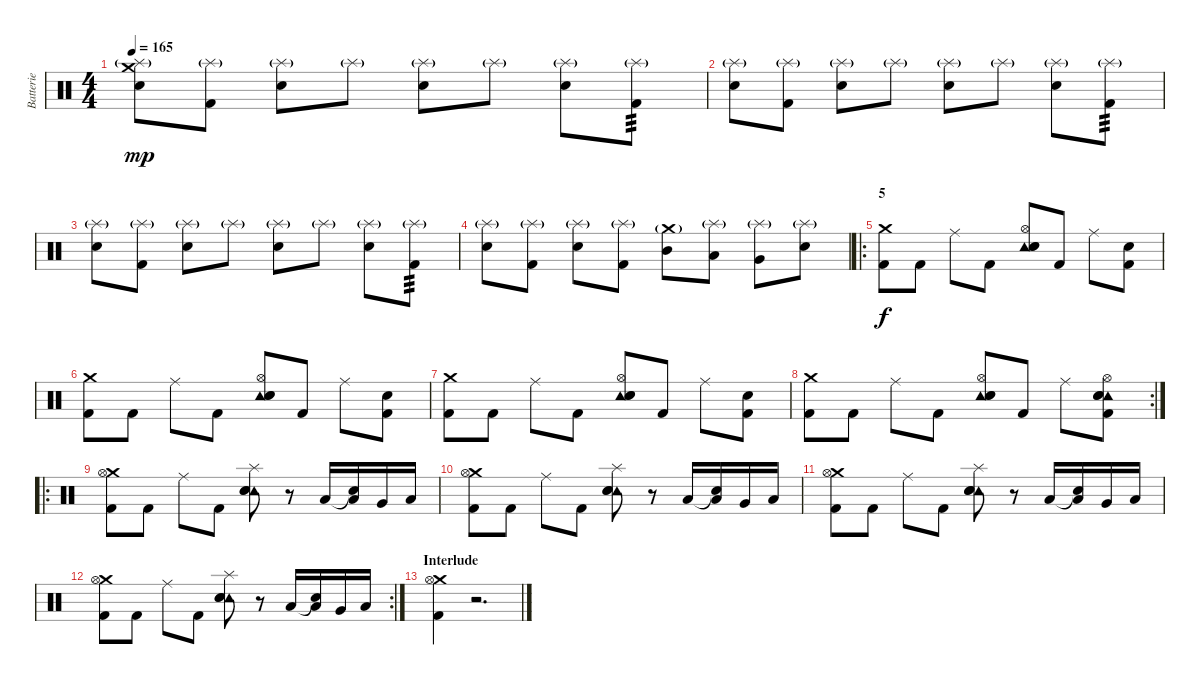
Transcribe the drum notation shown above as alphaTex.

\track ("Batterie" "Batterie") {instrument percussion}
\staff {score}
\articulation defaults
\ts (4 4)
\tempo 165
\clef neutral
\ks c
("Splash (hit)"{g} "Electric Snare (hit)" "Crash medium (hit)").8{dy mp} ("Splash (hit)"{g} "Kick (hit) 2").8 ("Splash (hit)"{g} "Electric Snare (hit)").8 "Splash (hit)"{g}.8 ("Splash (hit)"{g} "Electric Snare (hit)").8 "Splash (hit)"{g}.8 ("Splash (hit)"{g} "Electric Snare (hit)").8 ("Splash (hit)"{g} "Kick (hit) 2").8{tp 3} |
("Splash (hit)"{g} "Electric Snare (hit)").8 ("Splash (hit)"{g} "Kick (hit) 2").8 ("Splash (hit)"{g} "Electric Snare (hit)").8 "Splash (hit)"{g}.8 ("Splash (hit)"{g} "Electric Snare (hit)").8 "Splash (hit)"{g}.8 ("Splash (hit)"{g} "Electric Snare (hit)").8 ("Splash (hit)"{g} "Kick (hit) 2").8{tp 3} |
("Splash (hit)"{g} "Electric Snare (hit)").8 ("Splash (hit)"{g} "Kick (hit) 2").8 ("Splash (hit)"{g} "Electric Snare (hit)").8 "Splash (hit)"{g}.8 ("Splash (hit)"{g} "Electric Snare (hit)").8 "Splash (hit)"{g}.8 ("Splash (hit)"{g} "Electric Snare (hit)").8 ("Splash (hit)"{g} "Kick (hit) 2").8{tp 3} |
("Splash (hit)"{g} "Electric Snare (hit)").8 ("Splash (hit)"{g} "Kick (hit) 2").8 ("Splash (hit)"{g} "Electric Snare (hit)").8 ("Splash (hit)"{g} "Kick (hit) 2").8 ("Crash medium (hit)"{g} "Mid Tom (hit)").8 ("Splash (hit)"{g} "Low Tom (hit)").8 ("Splash (hit)"{g} "Very Low Tom (hit)").8 ("Splash (hit)"{g} "Electric Snare (hit)").8 |
\ro
\section ("" "5")
("Crash medium (hit)" "Kick (hit) 2").8{dy f volume 15} "Kick (hit) 2".8 "Ride (middle)".8 "Kick (hit) 2".8 ("Hi-Hat (open)" "Tambourine (hit)" "Electric Snare (hit)" "Snare (hit) 2").8 "Kick (hit) 2".8 "Ride (middle)".8 ("Snare (hit) 2" "Kick (hit) 2").8 |
("Crash medium (hit)" "Kick (hit) 2").8 "Kick (hit) 2".8 "Ride (middle)".8 "Kick (hit) 2".8 ("Hi-Hat (open)" "Tambourine (hit)" "Electric Snare (hit)" "Snare (hit) 2").8 "Kick (hit) 2".8 "Ride (middle)".8 ("Snare (hit) 2" "Kick (hit) 2").8 |
("Crash medium (hit)" "Kick (hit) 2").8 "Kick (hit) 2".8 "Ride (middle)".8 "Kick (hit) 2".8 ("Hi-Hat (open)" "Tambourine (hit)" "Electric Snare (hit)" "Snare (hit) 2").8 "Kick (hit) 2".8 "Ride (middle)".8 ("Snare (hit) 2" "Kick (hit) 2").8 |
\rc 2
("Crash medium (hit)" "Kick (hit) 2").8 "Kick (hit) 2".8 "Ride (middle)".8 "Kick (hit) 2".8 ("Hi-Hat (open)" "Tambourine (hit)" "Electric Snare (hit)" "Snare (hit) 2").8 "Kick (hit) 2".8 "Ride (middle)".8 ("Hi-Hat (open)" "Tambourine (hit)" "Electric Snare (hit)" "Snare (hit) 2" "Kick (hit) 2").8 |
\ro
("Crash medium (hit)" "Hi-Hat (open)" "Kick (hit) 2").8 "Kick (hit) 2".8 "Ride (middle)".8 "Kick (hit) 2".8 ("Splash (hit)" "Tambourine (hit)" "Electric Snare (hit)" "Snare (hit) 2").8 r.8 "Low Tom (hit)".16 ("Snare (hit)"{t} "Low Tom (hit)").16 "Very Low Tom (hit)".16 "Low Floor Tom (hit)".16 |
("Crash medium (hit)" "Hi-Hat (open)" "Kick (hit) 2").8 "Kick (hit) 2".8 "Ride (middle)".8 "Kick (hit) 2".8 ("Splash (hit)" "Tambourine (hit)" "Electric Snare (hit)" "Snare (hit) 2").8 r.8 "Low Tom (hit)".16 ("Snare (hit)"{t} "Low Tom (hit)").16 "Very Low Tom (hit)".16 "Low Floor Tom (hit)".16 |
("Crash medium (hit)" "Hi-Hat (open)" "Kick (hit) 2").8 "Kick (hit) 2".8 "Ride (middle)".8 "Kick (hit) 2".8 ("Splash (hit)" "Tambourine (hit)" "Electric Snare (hit)" "Snare (hit) 2").8 r.8 "Low Tom (hit)".16 ("Snare (hit)"{t} "Low Tom (hit)").16 "Very Low Tom (hit)".16 "Low Floor Tom (hit)".16 |
\rc 2
("Crash medium (hit)" "Hi-Hat (open)" "Kick (hit) 2").8 "Kick (hit) 2".8 "Ride (middle)".8 "Kick (hit) 2".8 ("Splash (hit)" "Tambourine (hit)" "Electric Snare (hit)" "Snare (hit) 2").8 r.8 "Low Tom (hit)".16 ("Snare (hit)"{t} "Low Tom (hit)").16 "Very Low Tom (hit)".16 "Low Floor Tom (hit)".16 |
\section ("" "Interlude")
("Crash medium (hit)" "Hi-Hat (open)" "Kick (hit) 2").4 r.2{d}
